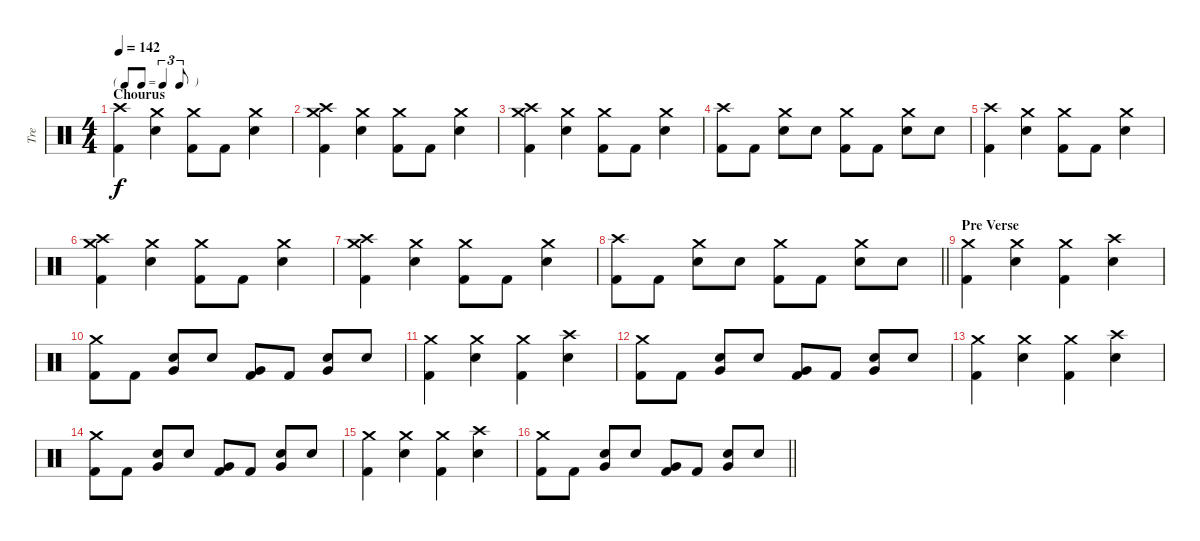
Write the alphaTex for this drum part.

\track ("Tre" "Tre") {instrument percussion}
\staff {score}
\articulation defaults
\ts (4 4)
\tf triplet8th
\section ("" "Chourus")
\tempo 142
\clef neutral
\ks c
("Crash high (hit)" "Kick (hit) 2").4{dy f} ("Crash medium (hit)" "Snare (hit) 2").4 ("Crash medium (hit)" "Kick (hit) 2").8 "Kick (hit) 2".8 ("Crash medium (hit)" "Snare (hit) 2").4 |
("Crash medium (hit)" "Crash high (hit)" "Kick (hit) 2").4 ("Crash medium (hit)" "Snare (hit) 2").4 ("Crash medium (hit)" "Kick (hit) 2").8 "Kick (hit) 2".8 ("Crash medium (hit)" "Snare (hit) 2").4 |
("Crash medium (hit)" "Crash high (hit)" "Kick (hit) 2").4 ("Crash medium (hit)" "Snare (hit) 2").4 ("Crash medium (hit)" "Kick (hit) 2").8 "Kick (hit) 2".8 ("Crash medium (hit)" "Snare (hit) 2").4 |
("Crash high (hit)" "Kick (hit) 2").8 "Kick (hit) 2".8 ("Crash medium (hit)" "Snare (hit) 2").8 "Snare (hit) 2".8 ("Crash medium (hit)" "Kick (hit) 2").8 "Kick (hit) 2".8 ("Crash medium (hit)" "Snare (hit) 2").8 "Snare (hit) 2".8 |
("Crash high (hit)" "Kick (hit) 2").4 ("Crash medium (hit)" "Snare (hit) 2").4 ("Crash medium (hit)" "Kick (hit) 2").8 "Kick (hit) 2".8 ("Crash medium (hit)" "Snare (hit) 2").4 |
("Crash medium (hit)" "Crash high (hit)" "Kick (hit) 2").4 ("Crash medium (hit)" "Snare (hit) 2").4 ("Crash medium (hit)" "Kick (hit) 2").8 "Kick (hit) 2".8 ("Crash medium (hit)" "Snare (hit) 2").4 |
("Crash medium (hit)" "Crash high (hit)" "Kick (hit) 2").4 ("Crash medium (hit)" "Snare (hit) 2").4 ("Crash medium (hit)" "Kick (hit) 2").8 "Kick (hit) 2".8 ("Crash medium (hit)" "Snare (hit) 2").4 |
\barLineRight lightlight
("Crash high (hit)" "Kick (hit) 2").8 "Kick (hit) 2".8 ("Crash medium (hit)" "Snare (hit) 2").8 "Snare (hit) 2".8 ("Crash medium (hit)" "Kick (hit) 2").8 "Kick (hit) 2".8 ("Crash medium (hit)" "Snare (hit) 2").8 "Snare (hit) 2".8 |
\section ("" "Pre Verse")
("Crash medium (hit)" "Kick (hit) 2").4 ("Crash medium (hit)" "Snare (hit) 2").4 ("Crash medium (hit)" "Kick (hit) 2").4 ("Crash high (hit)" "Snare (hit) 2").4 |
("Crash medium (hit)" "Kick (hit) 2").8 "Kick (hit) 2".8 ("Snare (hit) 2" "Very Low Tom (hit)").8 "Snare (hit) 2".8 ("Very Low Tom (hit)" "Kick (hit) 2").8 "Kick (hit) 2".8 ("Snare (hit) 2" "Very Low Tom (hit)").8 "Snare (hit) 2".8 |
("Crash medium (hit)" "Kick (hit) 2").4 ("Crash medium (hit)" "Snare (hit) 2").4 ("Crash medium (hit)" "Kick (hit) 2").4 ("Crash high (hit)" "Snare (hit) 2").4 |
("Crash medium (hit)" "Kick (hit) 2").8 "Kick (hit) 2".8 ("Snare (hit) 2" "Very Low Tom (hit)").8 "Snare (hit) 2".8 ("Very Low Tom (hit)" "Kick (hit) 2").8 "Kick (hit) 2".8 ("Snare (hit) 2" "Very Low Tom (hit)").8 "Snare (hit) 2".8 |
("Crash medium (hit)" "Kick (hit) 2").4 ("Crash medium (hit)" "Snare (hit) 2").4 ("Crash medium (hit)" "Kick (hit) 2").4 ("Crash high (hit)" "Snare (hit) 2").4 |
("Crash medium (hit)" "Kick (hit) 2").8 "Kick (hit) 2".8 ("Snare (hit) 2" "Very Low Tom (hit)").8 "Snare (hit) 2".8 ("Very Low Tom (hit)" "Kick (hit) 2").8 "Kick (hit) 2".8 ("Snare (hit) 2" "Very Low Tom (hit)").8 "Snare (hit) 2".8 |
("Crash medium (hit)" "Kick (hit) 2").4 ("Crash medium (hit)" "Snare (hit) 2").4 ("Crash medium (hit)" "Kick (hit) 2").4 ("Crash high (hit)" "Snare (hit) 2").4 |
\barLineRight lightlight
("Crash medium (hit)" "Kick (hit) 2").8 "Kick (hit) 2".8 ("Snare (hit) 2" "Very Low Tom (hit)").8 "Snare (hit) 2".8 ("Very Low Tom (hit)" "Kick (hit) 2").8 "Kick (hit) 2".8 ("Snare (hit) 2" "Very Low Tom (hit)").8 "Snare (hit) 2".8
